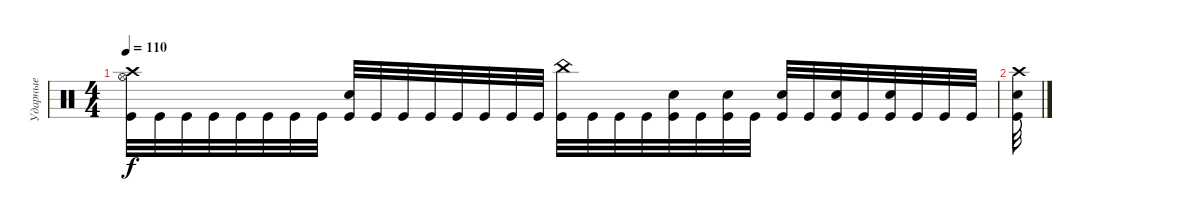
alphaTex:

\track ("Ударные" "Ударные") {instrument percussion}
\staff {score}
\articulation defaults
\ts (4 4)
\tempo 110
\clef neutral
\ks c
("Hi-Hat (open)" "Crash high (hit)" "Kick (hit)").32{dy f} "Kick (hit)".32 "Kick (hit)".32 "Kick (hit)".32 "Kick (hit)".32 "Kick (hit)".32 "Kick (hit)".32 "Kick (hit)".32 ("Electric Snare (hit)" "Kick (hit)").32 "Kick (hit)".32 "Kick (hit)".32 "Kick (hit)".32 "Kick (hit)".32 "Kick (hit)".32 "Kick (hit)".32 "Kick (hit)".32 ("China (hit)" "Kick (hit)").32 "Kick (hit)".32 "Kick (hit)".32 "Kick (hit)".32 ("Electric Snare (hit)" "Kick (hit)").32 "Kick (hit)".32 ("Electric Snare (hit)" "Kick (hit)").32 "Kick (hit)".32 ("Electric Snare (hit)" "Kick (hit)").32 "Kick (hit)".32 ("Electric Snare (hit)" "Kick (hit)").32 "Kick (hit)".32 ("Electric Snare (hit)" "Kick (hit)").32 "Kick (hit)".32 "Kick (hit)".32 "Kick (hit)".32 |
("Crash high (hit)" "Electric Snare (hit)" "Kick (hit)").32
